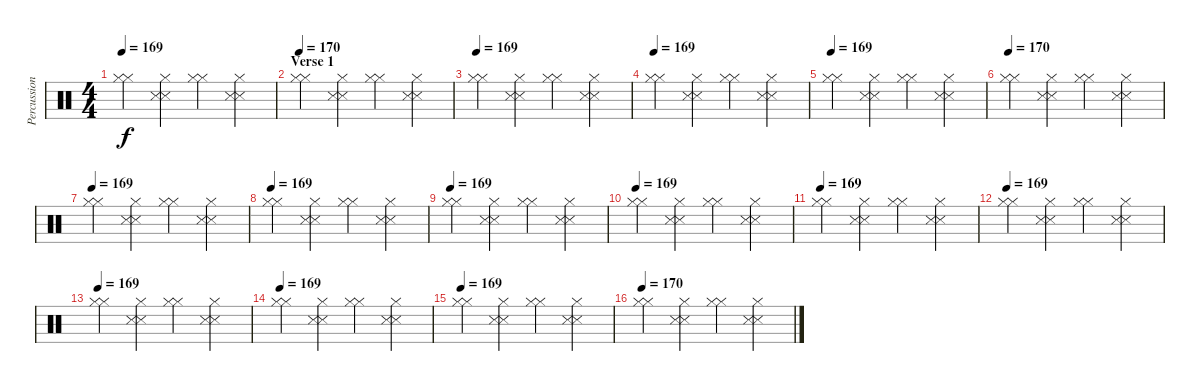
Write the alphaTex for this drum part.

\track ("Percussion" "Percussion") {instrument percussion}
\staff {score}
\articulation defaults
\ts (4 4)
\tempo 169
\clef neutral
\ks c
("Hi-Hat (closed)" "Hi-Hat (closed)").4{dy f} ("Hi-Hat (closed)" "Snare (side stick) 3" "Snare (side stick) 3").4 ("Hi-Hat (closed)" "Hi-Hat (closed)").4 ("Hi-Hat (closed)" "Snare (side stick) 3" "Snare (side stick) 3").4 |
\section ("" "Verse 1")
\tempo 169
\tempo 170
("Hi-Hat (closed)" "Hi-Hat (closed)").4 ("Hi-Hat (closed)" "Snare (side stick) 3" "Snare (side stick) 3").4 ("Hi-Hat (closed)" "Hi-Hat (closed)").4 ("Hi-Hat (closed)" "Snare (side stick) 3" "Snare (side stick) 3").4 |
\tempo 169
("Hi-Hat (closed)" "Hi-Hat (closed)").4 ("Hi-Hat (closed)" "Snare (side stick) 3" "Snare (side stick) 3").4 ("Hi-Hat (closed)" "Hi-Hat (closed)").4 ("Hi-Hat (closed)" "Snare (side stick) 3" "Snare (side stick) 3").4 |
\tempo 169
("Hi-Hat (closed)" "Hi-Hat (closed)").4 ("Hi-Hat (closed)" "Snare (side stick) 3" "Snare (side stick) 3").4 ("Hi-Hat (closed)" "Hi-Hat (closed)").4 ("Hi-Hat (closed)" "Snare (side stick) 3" "Snare (side stick) 3").4 |
\tempo 169
("Hi-Hat (closed)" "Hi-Hat (closed)").4 ("Hi-Hat (closed)" "Snare (side stick) 3" "Snare (side stick) 3").4 ("Hi-Hat (closed)" "Hi-Hat (closed)").4 ("Hi-Hat (closed)" "Snare (side stick) 3" "Snare (side stick) 3").4 |
\tempo 169
\tempo 170
("Hi-Hat (closed)" "Hi-Hat (closed)").4 ("Hi-Hat (closed)" "Snare (side stick) 3" "Snare (side stick) 3").4 ("Hi-Hat (closed)" "Hi-Hat (closed)").4 ("Hi-Hat (closed)" "Snare (side stick) 3" "Snare (side stick) 3").4 |
\tempo 169
("Hi-Hat (closed)" "Hi-Hat (closed)").4 ("Hi-Hat (closed)" "Snare (side stick) 3" "Snare (side stick) 3").4 ("Hi-Hat (closed)" "Hi-Hat (closed)").4 ("Hi-Hat (closed)" "Snare (side stick) 3" "Snare (side stick) 3").4 |
\tempo 169
("Hi-Hat (closed)" "Hi-Hat (closed)").4 ("Hi-Hat (closed)" "Snare (side stick) 3" "Snare (side stick) 3").4 ("Hi-Hat (closed)" "Hi-Hat (closed)").4 ("Hi-Hat (closed)" "Snare (side stick) 3" "Snare (side stick) 3").4 |
\tempo 169
("Hi-Hat (closed)" "Hi-Hat (closed)").4 ("Hi-Hat (closed)" "Snare (side stick) 3" "Snare (side stick) 3").4 ("Hi-Hat (closed)" "Hi-Hat (closed)").4 ("Hi-Hat (closed)" "Snare (side stick) 3" "Snare (side stick) 3").4 |
\tempo 169
("Hi-Hat (closed)" "Hi-Hat (closed)").4 ("Hi-Hat (closed)" "Snare (side stick) 3" "Snare (side stick) 3").4 ("Hi-Hat (closed)" "Hi-Hat (closed)").4 ("Hi-Hat (closed)" "Snare (side stick) 3" "Snare (side stick) 3").4 |
\tempo 169
("Hi-Hat (closed)" "Hi-Hat (closed)").4 ("Hi-Hat (closed)" "Snare (side stick) 3" "Snare (side stick) 3").4 ("Hi-Hat (closed)" "Hi-Hat (closed)").4 ("Hi-Hat (closed)" "Snare (side stick) 3" "Snare (side stick) 3").4 |
\tempo 169
("Hi-Hat (closed)" "Hi-Hat (closed)").4 ("Hi-Hat (closed)" "Snare (side stick) 3" "Snare (side stick) 3").4 ("Hi-Hat (closed)" "Hi-Hat (closed)").4 ("Hi-Hat (closed)" "Snare (side stick) 3" "Snare (side stick) 3").4 |
\tempo 169
("Hi-Hat (closed)" "Hi-Hat (closed)").4 ("Hi-Hat (closed)" "Snare (side stick) 3" "Snare (side stick) 3").4 ("Hi-Hat (closed)" "Hi-Hat (closed)").4 ("Hi-Hat (closed)" "Snare (side stick) 3" "Snare (side stick) 3").4 |
\tempo 169
("Hi-Hat (closed)" "Hi-Hat (closed)").4 ("Hi-Hat (closed)" "Snare (side stick) 3" "Snare (side stick) 3").4 ("Hi-Hat (closed)" "Hi-Hat (closed)").4 ("Hi-Hat (closed)" "Snare (side stick) 3" "Snare (side stick) 3").4 |
\tempo 169
("Hi-Hat (closed)" "Hi-Hat (closed)").4 ("Hi-Hat (closed)" "Snare (side stick) 3" "Snare (side stick) 3").4 ("Hi-Hat (closed)" "Hi-Hat (closed)").4 ("Hi-Hat (closed)" "Snare (side stick) 3" "Snare (side stick) 3").4 |
\tempo 169
\tempo 170
("Hi-Hat (closed)" "Hi-Hat (closed)").4 ("Hi-Hat (closed)" "Snare (side stick) 3" "Snare (side stick) 3").4 ("Hi-Hat (closed)" "Hi-Hat (closed)").4 ("Hi-Hat (closed)" "Snare (side stick) 3" "Snare (side stick) 3").4
